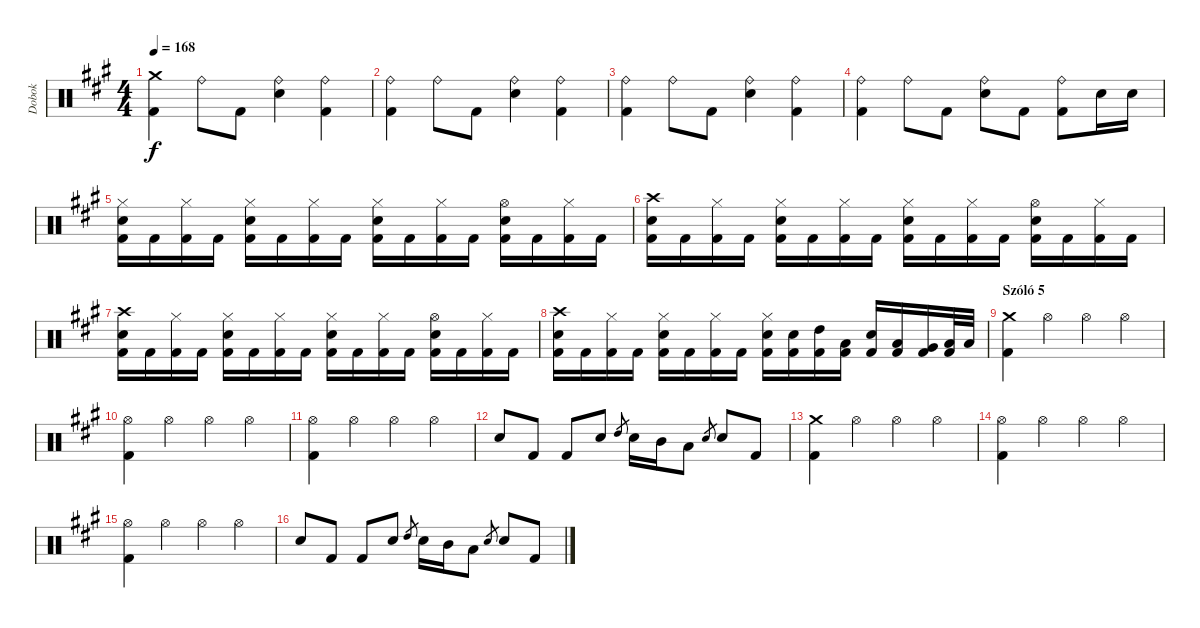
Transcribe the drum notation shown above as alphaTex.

\track ("Dobok" "Dobok") {instrument percussion}
\staff {score}
\articulation defaults
\ts (4 4)
\tempo 168
\clef neutral
\ks f#minor
("Crash medium (hit)" "Kick (hit) 2").4{dy f} "Ride (bell)".8 "Kick (hit) 2".8 ("Ride (bell)" "Snare (hit) 2").4 ("Ride (bell)" "Kick (hit) 2").4 |
("Ride (bell)" "Kick (hit) 2").4 "Ride (bell)".8 "Kick (hit) 2".8 ("Ride (bell)" "Snare (hit) 2").4 ("Ride (bell)" "Kick (hit) 2").4 |
("Ride (bell)" "Kick (hit) 2").4 "Ride (bell)".8 "Kick (hit) 2".8 ("Ride (bell)" "Snare (hit) 2").4 ("Ride (bell)" "Kick (hit) 2").4 |
("Ride (bell)" "Kick (hit) 2").4 "Ride (bell)".8 "Kick (hit) 2".8 ("Ride (bell)" "Snare (hit) 2").8 "Kick (hit) 2".8 ("Ride (bell)" "Kick (hit) 2").8 "Snare (hit) 2".16 "Snare (hit) 2".16 |
("Hi-Hat (closed)" "Snare (hit) 2" "Kick (hit) 2").16 "Kick (hit) 2".16 ("Hi-Hat (closed)" "Kick (hit) 2").16 "Kick (hit) 2".16 ("Hi-Hat (closed)" "Snare (hit) 2" "Kick (hit) 2").16 "Kick (hit) 2".16 ("Hi-Hat (closed)" "Kick (hit) 2").16 "Kick (hit) 2".16 ("Hi-Hat (closed)" "Snare (hit) 2" "Kick (hit) 2").16 "Kick (hit) 2".16 ("Hi-Hat (closed)" "Kick (hit) 2").16 "Kick (hit) 2".16 ("Hi-Hat (open)" "Snare (hit) 2" "Kick (hit) 2").16 "Kick (hit) 2".16 ("Hi-Hat (closed)" "Kick (hit) 2").16 "Kick (hit) 2".16 |
("Crash high (hit)" "Snare (hit) 2" "Kick (hit) 2").16 "Kick (hit) 2".16 ("Hi-Hat (closed)" "Kick (hit) 2").16 "Kick (hit) 2".16 ("Hi-Hat (closed)" "Snare (hit) 2" "Kick (hit) 2").16 "Kick (hit) 2".16 ("Hi-Hat (closed)" "Kick (hit) 2").16 "Kick (hit) 2".16 ("Hi-Hat (closed)" "Snare (hit) 2" "Kick (hit) 2").16 "Kick (hit) 2".16 ("Hi-Hat (closed)" "Kick (hit) 2").16 "Kick (hit) 2".16 ("Hi-Hat (open)" "Snare (hit) 2" "Kick (hit) 2").16 "Kick (hit) 2".16 ("Hi-Hat (closed)" "Kick (hit) 2").16 "Kick (hit) 2".16 |
("Crash high (hit)" "Snare (hit) 2" "Kick (hit) 2").16 "Kick (hit) 2".16 ("Hi-Hat (closed)" "Kick (hit) 2").16 "Kick (hit) 2".16 ("Hi-Hat (closed)" "Snare (hit) 2" "Kick (hit) 2").16 "Kick (hit) 2".16 ("Hi-Hat (closed)" "Kick (hit) 2").16 "Kick (hit) 2".16 ("Hi-Hat (closed)" "Snare (hit) 2" "Kick (hit) 2").16 "Kick (hit) 2".16 ("Hi-Hat (closed)" "Kick (hit) 2").16 "Kick (hit) 2".16 ("Hi-Hat (open)" "Snare (hit) 2" "Kick (hit) 2").16 "Kick (hit) 2".16 ("Hi-Hat (closed)" "Kick (hit) 2").16 "Kick (hit) 2".16 |
("Crash high (hit)" "Snare (hit) 2" "Kick (hit) 2").16 "Kick (hit) 2".16 ("Hi-Hat (closed)" "Kick (hit) 2").16 "Kick (hit) 2".16 ("Hi-Hat (closed)" "Snare (hit) 2" "Kick (hit) 2").16 "Kick (hit) 2".16 ("Hi-Hat (closed)" "Kick (hit) 2").16 "Kick (hit) 2".16 ("Hi-Hat (closed)" "Snare (hit) 2" "Kick (hit) 2").16 ("Snare (hit) 2" "Kick (hit) 2").16 ("High Tom (hit)" "Kick (hit) 2").16 ("Low Tom (hit)" "Kick (hit) 2").16 ("Snare (hit) 2" "Kick (hit) 2").16 ("Low Tom (hit)" "Kick (hit) 2").16 ("Very Low Tom (hit)" "Kick (hit) 2").16 ("Low Floor Tom (hit)" "Kick (hit) 2").32 "Low Floor Tom (hit)".32 |
\section ("" "Szóló 5")
("Crash medium (hit)" "Kick (hit) 2").4 "Hi-Hat (open)".4 "Hi-Hat (open)".4 "Hi-Hat (open)".4 |
("Hi-Hat (open)" "Kick (hit) 2").4 "Hi-Hat (open)".4 "Hi-Hat (open)".4 "Hi-Hat (open)".4 |
("Hi-Hat (open)" "Kick (hit) 2").4 "Hi-Hat (open)".4 "Hi-Hat (open)".4 "Hi-Hat (open)".4 |
"Snare (hit) 2".8 "Kick (hit) 2".8 "Kick (hit) 2".8 "Snare (hit) 2".8 "High Tom (hit)".8{gr} "Snare (hit) 2".16 "Mid Tom (hit)".16 "Low Tom (hit)".8 "Snare (hit) 2".8{gr} "Snare (hit) 2".8 "Kick (hit) 2".8 |
("Crash medium (hit)" "Kick (hit) 2").4 "Hi-Hat (open)".4 "Hi-Hat (open)".4 "Hi-Hat (open)".4 |
("Hi-Hat (open)" "Kick (hit) 2").4 "Hi-Hat (open)".4 "Hi-Hat (open)".4 "Hi-Hat (open)".4 |
("Hi-Hat (open)" "Kick (hit) 2").4 "Hi-Hat (open)".4 "Hi-Hat (open)".4 "Hi-Hat (open)".4 |
"Snare (hit) 2".8 "Kick (hit) 2".8 "Kick (hit) 2".8 "Snare (hit) 2".8 "High Tom (hit)".8{gr} "Snare (hit) 2".16 "Mid Tom (hit)".16 "Low Tom (hit)".8 "Snare (hit) 2".8{gr} "Snare (hit) 2".8 "Kick (hit) 2".8
